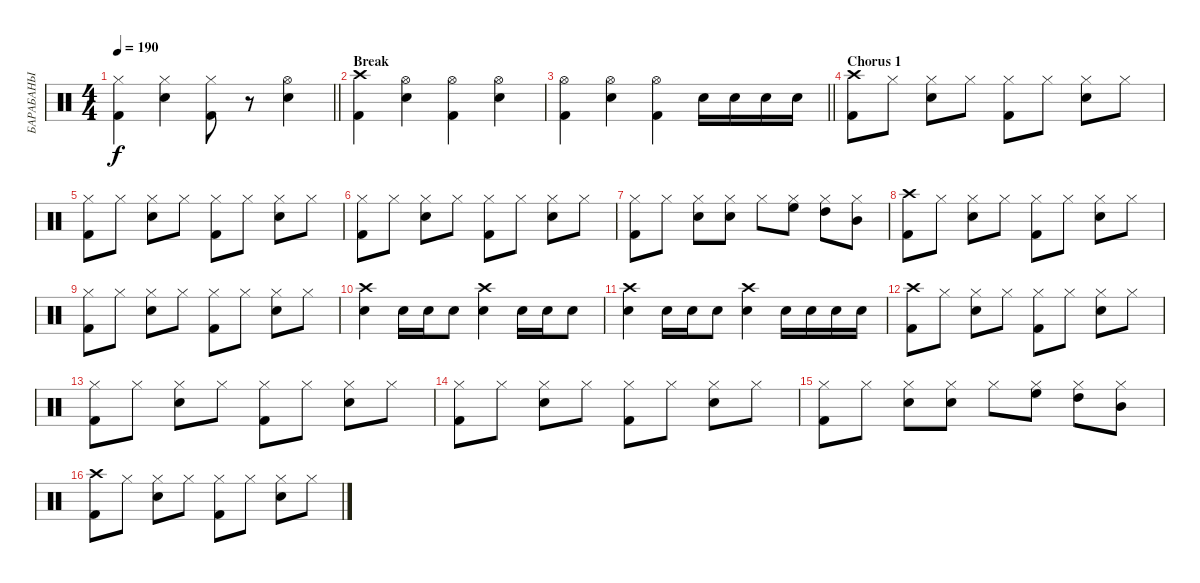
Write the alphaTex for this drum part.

\track ("БАРАБАНЫ" "БАРАБАНЫ") {instrument percussion}
\staff {score}
\articulation defaults
\ts (4 4)
\tempo 190
\clef neutral
\barLineRight lightlight
\ks c
("Hi-Hat (closed)" "Kick (hit) 2").4{dy f} ("Hi-Hat (closed)" "Snare (hit) 2").4 ("Hi-Hat (closed)" "Kick (hit) 2").8 r.8 ("Hi-Hat (open)" "Snare (hit) 2").4 |
\section ("" "Break")
("Crash high (hit)" "Kick (hit) 2").4 ("Hi-Hat (open)" "Snare (hit) 2").4 ("Hi-Hat (open)" "Kick (hit) 2").4 ("Hi-Hat (open)" "Snare (hit) 2").4 |
\barLineRight lightlight
("Hi-Hat (open)" "Kick (hit) 2").4 ("Hi-Hat (open)" "Snare (hit) 2").4 ("Hi-Hat (open)" "Kick (hit) 2").4 "Snare (hit) 2".16 "Snare (hit) 2".16 "Snare (hit) 2".16 "Snare (hit) 2".16 |
\section ("" "Chorus 1")
("Crash high (hit)" "Kick (hit) 2").8 "Hi-Hat (closed)".8 ("Hi-Hat (closed)" "Snare (hit) 2").8 "Hi-Hat (closed)".8 ("Hi-Hat (closed)" "Kick (hit) 2").8 "Hi-Hat (closed)".8 ("Hi-Hat (closed)" "Snare (hit) 2").8 "Hi-Hat (closed)".8 |
("Hi-Hat (closed)" "Kick (hit) 2").8 "Hi-Hat (closed)".8 ("Hi-Hat (closed)" "Snare (hit) 2").8 "Hi-Hat (closed)".8 ("Hi-Hat (closed)" "Kick (hit) 2").8 "Hi-Hat (closed)".8 ("Hi-Hat (closed)" "Snare (hit) 2").8 "Hi-Hat (closed)".8 |
("Hi-Hat (closed)" "Kick (hit) 2").8 "Hi-Hat (closed)".8 ("Hi-Hat (closed)" "Snare (hit) 2").8 "Hi-Hat (closed)".8 ("Hi-Hat (closed)" "Kick (hit) 2").8 "Hi-Hat (closed)".8 ("Hi-Hat (closed)" "Snare (hit) 2").8 "Hi-Hat (closed)".8 |
("Hi-Hat (closed)" "Kick (hit) 2").8 "Hi-Hat (closed)".8 ("Hi-Hat (closed)" "Snare (hit) 2").8 ("Hi-Hat (closed)" "Snare (hit) 2").8 "Hi-Hat (closed)".8 ("Hi-Hat (closed)" "High Floor Tom (hit)").8 ("Hi-Hat (closed)" "High Tom (hit)").8 ("Hi-Hat (closed)" "Mid Tom (hit)").8 |
("Crash high (hit)" "Kick (hit) 2").8 "Hi-Hat (closed)".8 ("Hi-Hat (closed)" "Snare (hit) 2").8 "Hi-Hat (closed)".8 ("Hi-Hat (closed)" "Kick (hit) 2").8 "Hi-Hat (closed)".8 ("Hi-Hat (closed)" "Snare (hit) 2").8 "Hi-Hat (closed)".8 |
("Hi-Hat (closed)" "Kick (hit) 2").8 "Hi-Hat (closed)".8 ("Hi-Hat (closed)" "Snare (hit) 2").8 "Hi-Hat (closed)".8 ("Hi-Hat (closed)" "Kick (hit) 2").8 "Hi-Hat (closed)".8 ("Hi-Hat (closed)" "Snare (hit) 2").8 "Hi-Hat (closed)".8 |
("Crash high (hit)" "Snare (hit) 2").4 "Snare (hit) 2".16 "Snare (hit) 2".16 "Snare (hit) 2".8 ("Crash high (hit)" "Snare (hit) 2").4 "Snare (hit) 2".16 "Snare (hit) 2".16 "Snare (hit) 2".8 |
("Crash high (hit)" "Snare (hit) 2").4 "Snare (hit) 2".16 "Snare (hit) 2".16 "Snare (hit) 2".8 ("Crash high (hit)" "Snare (hit) 2").4 "Snare (hit) 2".16 "Snare (hit) 2".16 "Snare (hit) 2".16 "Snare (hit) 2".16 |
("Crash high (hit)" "Kick (hit) 2").8 "Hi-Hat (closed)".8 ("Hi-Hat (closed)" "Snare (hit) 2").8 "Hi-Hat (closed)".8 ("Hi-Hat (closed)" "Kick (hit) 2").8 "Hi-Hat (closed)".8 ("Hi-Hat (closed)" "Snare (hit) 2").8 "Hi-Hat (closed)".8 |
("Hi-Hat (closed)" "Kick (hit) 2").8 "Hi-Hat (closed)".8 ("Hi-Hat (closed)" "Snare (hit) 2").8 "Hi-Hat (closed)".8 ("Hi-Hat (closed)" "Kick (hit) 2").8 "Hi-Hat (closed)".8 ("Hi-Hat (closed)" "Snare (hit) 2").8 "Hi-Hat (closed)".8 |
("Hi-Hat (closed)" "Kick (hit) 2").8 "Hi-Hat (closed)".8 ("Hi-Hat (closed)" "Snare (hit) 2").8 "Hi-Hat (closed)".8 ("Hi-Hat (closed)" "Kick (hit) 2").8 "Hi-Hat (closed)".8 ("Hi-Hat (closed)" "Snare (hit) 2").8 "Hi-Hat (closed)".8 |
("Hi-Hat (closed)" "Kick (hit) 2").8 "Hi-Hat (closed)".8 ("Hi-Hat (closed)" "Snare (hit) 2").8 ("Hi-Hat (closed)" "Snare (hit) 2").8 "Hi-Hat (closed)".8 ("Hi-Hat (closed)" "High Floor Tom (hit)").8 ("Hi-Hat (closed)" "High Tom (hit)").8 ("Hi-Hat (closed)" "Mid Tom (hit)").8 |
("Crash high (hit)" "Kick (hit) 2").8 "Hi-Hat (closed)".8 ("Hi-Hat (closed)" "Snare (hit) 2").8 "Hi-Hat (closed)".8 ("Hi-Hat (closed)" "Kick (hit) 2").8 "Hi-Hat (closed)".8 ("Hi-Hat (closed)" "Snare (hit) 2").8 "Hi-Hat (closed)".8
